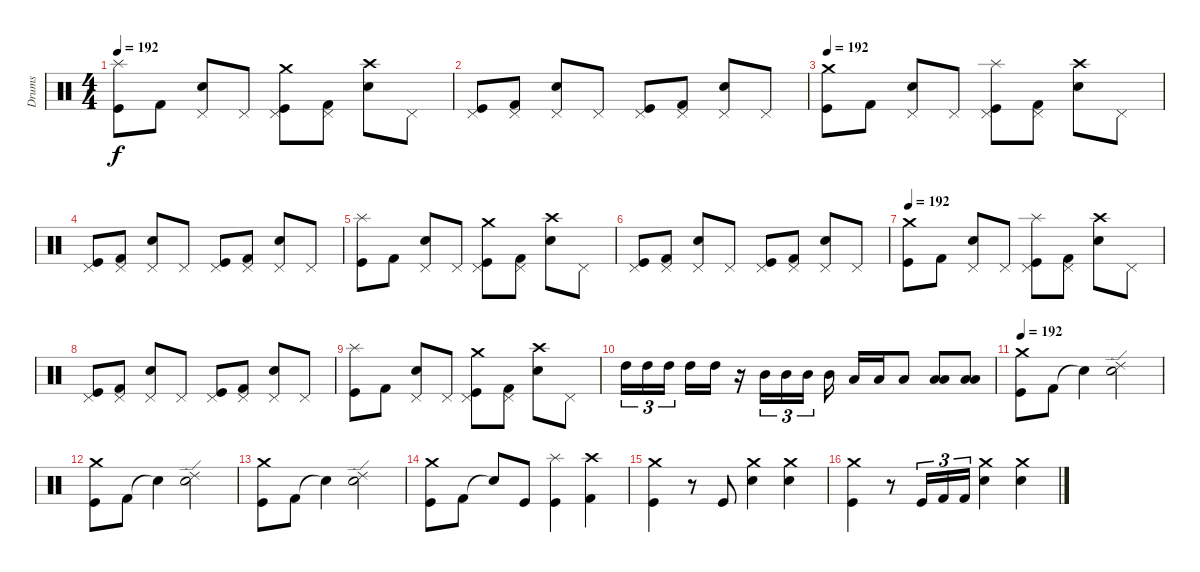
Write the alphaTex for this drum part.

\track ("Drums" "Drums") {instrument percussion}
\staff {score}
\articulation defaults
\ts (4 4)
\tempo 192
\clef neutral
\ks c
("Splash (hit)" "Kick (hit)").8{dy f} "Kick (hit) 2".8 ("Electric Snare (hit)" "Pedal Hi-Hat (hit)").8 "Pedal Hi-Hat (hit)".8 ("Crash medium (hit)" "Pedal Hi-Hat (hit)" "Kick (hit)").8 ("Pedal Hi-Hat (hit)" "Kick (hit) 2").8 ("Crash high (hit)" "Electric Snare (hit)").8 "Pedal Hi-Hat (hit)".8 |
("Pedal Hi-Hat (hit)" "Kick (hit)").8 ("Pedal Hi-Hat (hit)" "Kick (hit) 2").8 ("Electric Snare (hit)" "Pedal Hi-Hat (hit)").8 "Pedal Hi-Hat (hit)".8 ("Pedal Hi-Hat (hit)" "Kick (hit)").8 ("Pedal Hi-Hat (hit)" "Kick (hit) 2").8 ("Electric Snare (hit)" "Pedal Hi-Hat (hit)").8 "Pedal Hi-Hat (hit)".8 |
\tempo 192
("Crash medium (hit)" "Kick (hit)").8 "Kick (hit) 2".8 ("Electric Snare (hit)" "Pedal Hi-Hat (hit)").8 "Pedal Hi-Hat (hit)".8 ("Splash (hit)" "Pedal Hi-Hat (hit)" "Kick (hit)").8 ("Pedal Hi-Hat (hit)" "Kick (hit) 2").8 ("Crash high (hit)" "Electric Snare (hit)").8 "Pedal Hi-Hat (hit)".8 |
("Pedal Hi-Hat (hit)" "Kick (hit)").8 ("Pedal Hi-Hat (hit)" "Kick (hit) 2").8 ("Electric Snare (hit)" "Pedal Hi-Hat (hit)").8 "Pedal Hi-Hat (hit)".8 ("Pedal Hi-Hat (hit)" "Kick (hit)").8 ("Pedal Hi-Hat (hit)" "Kick (hit) 2").8 ("Electric Snare (hit)" "Pedal Hi-Hat (hit)").8 "Pedal Hi-Hat (hit)".8 |
("Splash (hit)" "Kick (hit)").8 "Kick (hit) 2".8 ("Electric Snare (hit)" "Pedal Hi-Hat (hit)").8 "Pedal Hi-Hat (hit)".8 ("Crash medium (hit)" "Pedal Hi-Hat (hit)" "Kick (hit)").8 ("Pedal Hi-Hat (hit)" "Kick (hit) 2").8 ("Crash high (hit)" "Electric Snare (hit)").8 "Pedal Hi-Hat (hit)".8 |
("Pedal Hi-Hat (hit)" "Kick (hit)").8 ("Pedal Hi-Hat (hit)" "Kick (hit) 2").8 ("Electric Snare (hit)" "Pedal Hi-Hat (hit)").8 "Pedal Hi-Hat (hit)".8 ("Pedal Hi-Hat (hit)" "Kick (hit)").8 ("Pedal Hi-Hat (hit)" "Kick (hit) 2").8 ("Electric Snare (hit)" "Pedal Hi-Hat (hit)").8 "Pedal Hi-Hat (hit)".8 |
\tempo 192
("Crash medium (hit)" "Kick (hit)").8 "Kick (hit) 2".8 ("Electric Snare (hit)" "Pedal Hi-Hat (hit)").8 "Pedal Hi-Hat (hit)".8 ("Splash (hit)" "Pedal Hi-Hat (hit)" "Kick (hit)").8 ("Pedal Hi-Hat (hit)" "Kick (hit) 2").8 ("Crash high (hit)" "Electric Snare (hit)").8 "Pedal Hi-Hat (hit)".8 |
("Pedal Hi-Hat (hit)" "Kick (hit)").8 ("Pedal Hi-Hat (hit)" "Kick (hit) 2").8 ("Electric Snare (hit)" "Pedal Hi-Hat (hit)").8 "Pedal Hi-Hat (hit)".8 ("Pedal Hi-Hat (hit)" "Kick (hit)").8 ("Pedal Hi-Hat (hit)" "Kick (hit) 2").8 ("Electric Snare (hit)" "Pedal Hi-Hat (hit)").8 "Pedal Hi-Hat (hit)".8 |
("Splash (hit)" "Kick (hit)").8 "Kick (hit) 2".8 ("Electric Snare (hit)" "Pedal Hi-Hat (hit)").8 "Pedal Hi-Hat (hit)".8 ("Crash medium (hit)" "Pedal Hi-Hat (hit)" "Kick (hit)").8 ("Pedal Hi-Hat (hit)" "Kick (hit) 2").8 ("Crash high (hit)" "Electric Snare (hit)").8 "Pedal Hi-Hat (hit)".8 |
"High Tom (hit)".16{tu (3 2)} "High Tom (hit)".16{tu (3 2)} "High Tom (hit)".16{tu (3 2)} "High Tom (hit)".16 "High Tom (hit)".16 r.16 "Mid Tom (hit)".16{tu (3 2)} "Mid Tom (hit)".16{tu (3 2)} "Mid Tom (hit)".16{tu (3 2)} "Mid Tom (hit)".16 "Low Tom (hit)".16 "Low Tom (hit)".16 "Low Tom (hit)".8 ("Low Tom (hit)" "Low Floor Tom (hit)").8 ("Low Tom (hit)" "Low Floor Tom (hit)").8 |
\tempo 192
("Crash medium (hit)" "Kick (hit)").8 "Kick (hit) 2".8 "Snare (hit)"{t}.4 ("Ride (edge) 2" "Electric Snare (hit)").2 |
("Crash medium (hit)" "Kick (hit)").8 "Kick (hit) 2".8 "Snare (hit)"{t}.4 ("Ride (edge) 2" "Electric Snare (hit)").2 |
("Crash medium (hit)" "Kick (hit)").8 "Kick (hit) 2".8 "Snare (hit)"{t}.4 ("Ride (edge) 2" "Electric Snare (hit)").2 |
("Crash medium (hit)" "Kick (hit)").8 "Kick (hit) 2".8 "Snare (hit)"{t}.8 "Kick (hit)".8 ("Splash (hit)" "Kick (hit)").4 ("Crash high (hit)" "Kick (hit) 2").4 |
("Crash medium (hit)" "Kick (hit)").4 r.8 "Kick (hit)".8 ("Crash medium (hit)" "Electric Snare (hit)").4 ("Crash medium (hit)" "Electric Snare (hit)").4 |
("Crash medium (hit)" "Kick (hit)").4 r.8 "Kick (hit)".16{tu (3 2)} "Kick (hit) 2".16{tu (3 2)} "Kick (hit) 2".16{tu (3 2)} ("Crash medium (hit)" "Electric Snare (hit)").4 ("Crash medium (hit)" "Electric Snare (hit)").4
